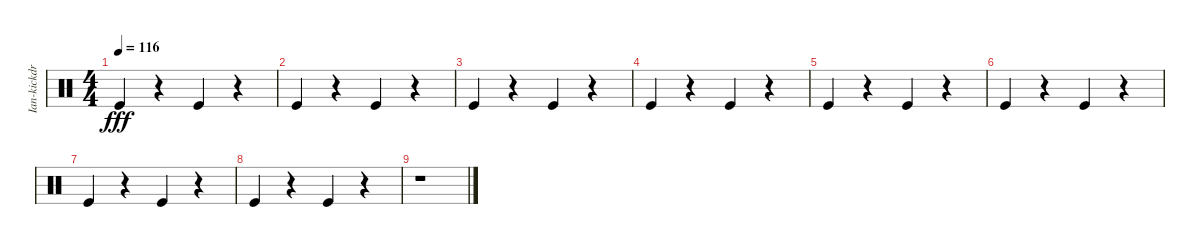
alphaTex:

\track ("Ian-kickdrum" "Ian-kickdr") {instrument percussion}
\staff {score}
\articulation defaults
\ts (4 4)
\tempo 116
\clef neutral
\ks c "Kick (hit)".4{dy fff volume 9}
r.4 "Kick (hit)".4{volume 9} r.4 |
"Kick (hit)".4{volume 8} r.4 "Kick (hit)".4{volume 7} r.4 |
"Kick (hit)".4{volume 7} r.4 "Kick (hit)".4{volume 6} r.4 |
"Kick (hit)".4{volume 6} r.4 "Kick (hit)".4{volume 5} r.4 |
"Kick (hit)".4{volume 5} r.4 "Kick (hit)".4{volume 4} r.4 |
"Kick (hit)".4{volume 4} r.4 "Kick (hit)".4{volume 3} r.4 |
"Kick (hit)".4{volume 2} r.4 "Kick (hit)".4{volume 2} r.4 |
"Kick (hit)".4{volume 1} r.4 "Kick (hit)".4{volume 1} r.4 |
r.1
